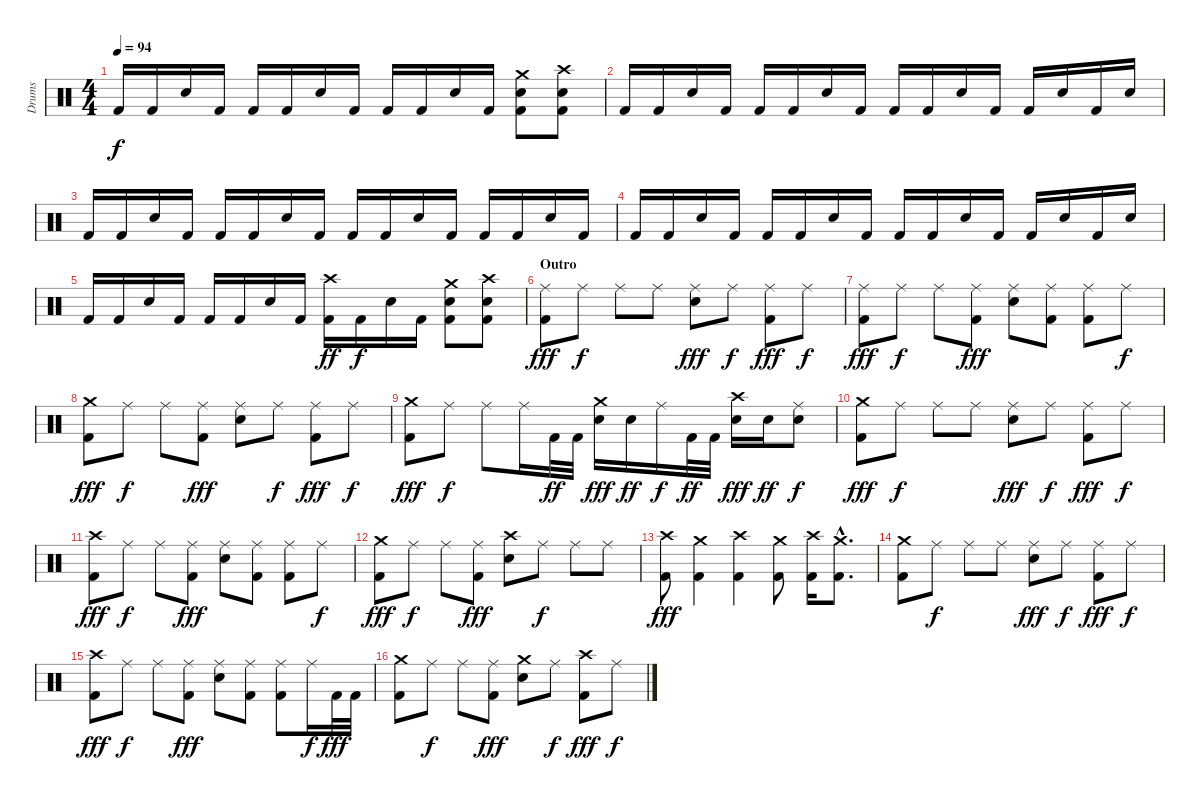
\track ("Drums" "Drums") {instrument percussion}
\staff {score}
\articulation defaults
\ts (4 4)
\tempo 94
\clef neutral
\ks c "Kick (hit) 2".16{dy f} "Kick (hit) 2".16 "Snare (hit) 2".16 "Kick (hit) 2".16 "Kick (hit) 2".16 "Kick (hit) 2".16 "Snare (hit) 2".16 "Kick (hit) 2".16 "Kick (hit) 2".16 "Kick (hit) 2".16 "Snare (hit) 2".16 "Kick (hit) 2".16
("Crash medium (hit)" "Snare (hit) 2" "Kick (hit) 2").8 ("Crash high (hit)" "Snare (hit) 2" "Kick (hit) 2").8 |
"Kick (hit) 2".16 "Kick (hit) 2".16 "Snare (hit) 2".16 "Kick (hit) 2".16 "Kick (hit) 2".16 "Kick (hit) 2".16 "Snare (hit) 2".16 "Kick (hit) 2".16 "Kick (hit) 2".16 "Kick (hit) 2".16 "Snare (hit) 2".16 "Kick (hit) 2".16 "Kick (hit) 2".16 "Snare (hit) 2".16 "Kick (hit) 2".16 "Snare (hit) 2".16 |
"Kick (hit) 2".16 "Kick (hit) 2".16 "Snare (hit) 2".16 "Kick (hit) 2".16 "Kick (hit) 2".16 "Kick (hit) 2".16 "Snare (hit) 2".16 "Kick (hit) 2".16 "Kick (hit) 2".16 "Kick (hit) 2".16 "Snare (hit) 2".16 "Kick (hit) 2".16 "Kick (hit) 2".16 "Kick (hit) 2".16 "Snare (hit) 2".16 "Kick (hit) 2".16 |
"Kick (hit) 2".16 "Kick (hit) 2".16 "Snare (hit) 2".16 "Kick (hit) 2".16 "Kick (hit) 2".16 "Kick (hit) 2".16 "Snare (hit) 2".16 "Kick (hit) 2".16 "Kick (hit) 2".16 "Kick (hit) 2".16 "Snare (hit) 2".16 "Kick (hit) 2".16 "Kick (hit) 2".16 "Snare (hit) 2".16 "Kick (hit) 2".16 "Snare (hit) 2".16 |
"Kick (hit) 2".16 "Kick (hit) 2".16 "Snare (hit) 2".16 "Kick (hit) 2".16 "Kick (hit) 2".16 "Kick (hit) 2".16 "Snare (hit) 2".16 "Kick (hit) 2".16 ("Crash high (hit)" "Kick (hit) 2").16{dy ff} "Kick (hit) 2".16{dy f} "Snare (hit) 2".16 "Kick (hit) 2".16 ("Crash medium (hit)" "Snare (hit) 2" "Kick (hit) 2").8 ("Crash high (hit)" "Snare (hit) 2" "Kick (hit) 2").8 |
\section ("" "Outro")
("Ride (middle)" "Kick (hit) 2").8{dy fff} "Ride (middle)".8{dy f} "Ride (middle)".8 "Ride (middle)".8 ("Ride (middle)" "Snare (hit) 2").8{dy fff} "Ride (middle)".8{dy f} ("Ride (middle)" "Kick (hit) 2").8{dy fff} "Ride (middle)".8{dy f} |
("Ride (middle)" "Kick (hit) 2").8{dy fff} "Ride (middle)".8{dy f} "Ride (middle)".8 ("Ride (middle)" "Kick (hit) 2").8{dy fff} ("Ride (middle)" "Snare (hit) 2").8 ("Ride (middle)" "Kick (hit) 2").8 ("Ride (middle)" "Kick (hit) 2").8 "Ride (middle)".8{dy f} |
("Crash medium (hit)" "Kick (hit) 2").8{dy fff} "Ride (middle)".8{dy f} "Ride (middle)".8 ("Ride (middle)" "Kick (hit) 2").8{dy fff} ("Ride (middle)" "Snare (hit) 2").8 "Ride (middle)".8{dy f} ("Ride (middle)" "Kick (hit) 2").8{dy fff} "Ride (middle)".8{dy f} |
("Crash medium (hit)" "Kick (hit) 2").8{dy fff} "Ride (middle)".8{dy f} "Ride (middle)".8 "Ride (middle)".16 "Kick (hit) 2".32{dy ff} "Kick (hit) 2".32 ("Crash medium (hit)" "Snare (hit) 2").16{dy fff} "Snare (hit) 2".16{dy ff} "Ride (middle)".16{dy f} "Kick (hit) 2".32{dy ff} "Kick (hit) 2".32 ("Crash high (hit)" "Snare (hit) 2").16{dy fff} "Snare (hit) 2".16{dy ff} ("Ride (middle)" "Snare (hit) 2").8{dy f} |
("Crash medium (hit)" "Kick (hit) 2").8{dy fff} "Ride (middle)".8{dy f} "Ride (middle)".8 "Ride (middle)".8 ("Ride (middle)" "Snare (hit) 2").8{dy fff} "Ride (middle)".8{dy f} ("Ride (middle)" "Kick (hit) 2").8{dy fff} "Ride (middle)".8{dy f} |
("Crash high (hit)" "Kick (hit) 2").8{dy fff} "Ride (middle)".8{dy f} "Ride (middle)".8 ("Ride (middle)" "Kick (hit) 2").8{dy fff} ("Ride (middle)" "Snare (hit) 2").8 ("Ride (middle)" "Kick (hit) 2").8 ("Ride (middle)" "Kick (hit) 2").8 "Ride (middle)".8{dy f} |
("Crash medium (hit)" "Kick (hit) 2").8{dy fff} "Ride (middle)".8{dy f} "Ride (middle)".8 ("Ride (middle)" "Kick (hit) 2").8{dy fff} ("Crash high (hit)" "Snare (hit) 2").8 "Ride (middle)".8{dy f} "Ride (middle)".8 "Ride (middle)".8 |
("Crash high (hit)" "Kick (hit) 2").8{dy fff} ("Crash medium (hit)" "Kick (hit) 2").4 ("Crash high (hit)" "Kick (hit) 2").4 ("Crash medium (hit)" "Kick (hit) 2").8 ("Crash high (hit)" "Kick (hit) 2").16 ("Crash medium (hit)"{hac} "Kick (hit) 2"{hac}).8{d} |
("Crash medium (hit)" "Kick (hit) 2").8 "Ride (middle)".8{dy f} "Ride (middle)".8 "Ride (middle)".8 ("Ride (middle)" "Snare (hit) 2").8{dy fff} "Ride (middle)".8{dy f} ("Ride (middle)" "Kick (hit) 2").8{dy fff} "Ride (middle)".8{dy f} |
("Crash high (hit)" "Kick (hit) 2").8{dy fff} "Ride (middle)".8{dy f} "Ride (middle)".8 ("Ride (middle)" "Kick (hit) 2").8{dy fff} ("Ride (middle)" "Snare (hit) 2").8 ("Ride (middle)" "Kick (hit) 2").8 ("Ride (middle)" "Kick (hit) 2").8 "Ride (middle)".16{dy f} "Kick (hit) 2".32{dy fff} "Kick (hit) 2".32 |
("Crash medium (hit)" "Kick (hit) 2").8 "Ride (middle)".8{dy f} "Ride (middle)".8 ("Ride (middle)" "Kick (hit) 2").8{dy fff} ("Crash medium (hit)" "Snare (hit) 2").8 "Ride (middle)".8{dy f} ("Crash high (hit)" "Kick (hit) 2").8{dy fff} "Ride (middle)".8{dy f}
